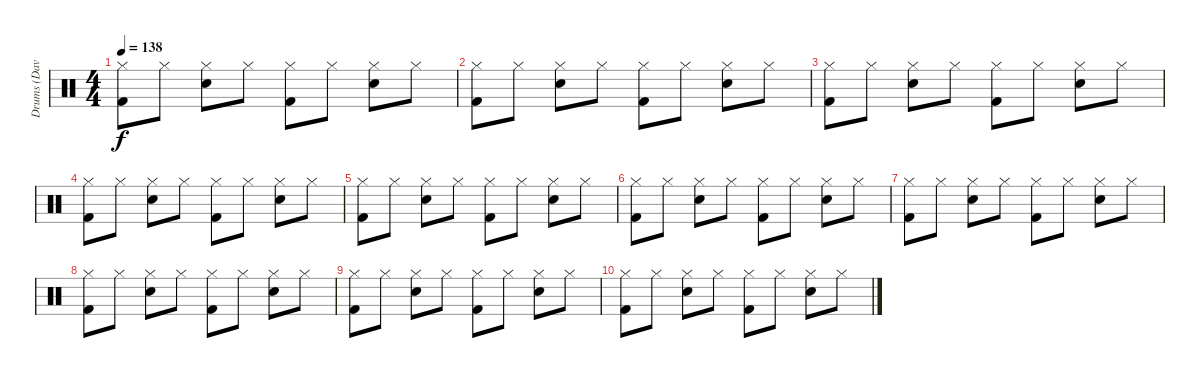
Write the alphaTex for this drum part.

\track ("Drums (Dave Holland)" "Drums (Dav") {instrument percussion}
\staff {score}
\articulation defaults
\ts (4 4)
\tempo 138
\clef neutral
\ks c
("Hi-Hat (closed)" "Kick (hit) 2").8{dy f} "Hi-Hat (closed)".8 ("Hi-Hat (closed)" "Snare (hit) 2").8 "Hi-Hat (closed)".8 ("Hi-Hat (closed)" "Kick (hit) 2").8 "Hi-Hat (closed)".8 ("Hi-Hat (closed)" "Snare (hit) 2").8 "Hi-Hat (closed)".8 |
("Hi-Hat (closed)" "Kick (hit) 2").8 "Hi-Hat (closed)".8 ("Hi-Hat (closed)" "Snare (hit) 2").8 "Hi-Hat (closed)".8 ("Hi-Hat (closed)" "Kick (hit) 2").8 "Hi-Hat (closed)".8 ("Hi-Hat (closed)" "Snare (hit) 2").8 "Hi-Hat (closed)".8 |
("Hi-Hat (closed)" "Kick (hit) 2").8 "Hi-Hat (closed)".8 ("Hi-Hat (closed)" "Snare (hit) 2").8 "Hi-Hat (closed)".8 ("Hi-Hat (closed)" "Kick (hit) 2").8 "Hi-Hat (closed)".8 ("Hi-Hat (closed)" "Snare (hit) 2").8 "Hi-Hat (closed)".8 |
("Hi-Hat (closed)" "Kick (hit) 2").8 "Hi-Hat (closed)".8 ("Hi-Hat (closed)" "Snare (hit) 2").8 "Hi-Hat (closed)".8 ("Hi-Hat (closed)" "Kick (hit) 2").8 "Hi-Hat (closed)".8 ("Hi-Hat (closed)" "Snare (hit) 2").8 "Hi-Hat (closed)".8 |
("Hi-Hat (closed)" "Kick (hit) 2").8 "Hi-Hat (closed)".8 ("Hi-Hat (closed)" "Snare (hit) 2").8 "Hi-Hat (closed)".8 ("Hi-Hat (closed)" "Kick (hit) 2").8 "Hi-Hat (closed)".8 ("Hi-Hat (closed)" "Snare (hit) 2").8 "Hi-Hat (closed)".8 |
("Hi-Hat (closed)" "Kick (hit) 2").8 "Hi-Hat (closed)".8 ("Hi-Hat (closed)" "Snare (hit) 2").8 "Hi-Hat (closed)".8 ("Hi-Hat (closed)" "Kick (hit) 2").8 "Hi-Hat (closed)".8 ("Hi-Hat (closed)" "Snare (hit) 2").8 "Hi-Hat (closed)".8 |
("Hi-Hat (closed)" "Kick (hit) 2").8 "Hi-Hat (closed)".8 ("Hi-Hat (closed)" "Snare (hit) 2").8 "Hi-Hat (closed)".8 ("Hi-Hat (closed)" "Kick (hit) 2").8 "Hi-Hat (closed)".8 ("Hi-Hat (closed)" "Snare (hit) 2").8 "Hi-Hat (closed)".8 |
("Hi-Hat (closed)" "Kick (hit) 2").8 "Hi-Hat (closed)".8 ("Hi-Hat (closed)" "Snare (hit) 2").8 "Hi-Hat (closed)".8 ("Hi-Hat (closed)" "Kick (hit) 2").8 "Hi-Hat (closed)".8 ("Hi-Hat (closed)" "Snare (hit) 2").8 "Hi-Hat (closed)".8 |
("Hi-Hat (closed)" "Kick (hit) 2").8 "Hi-Hat (closed)".8 ("Hi-Hat (closed)" "Snare (hit) 2").8 "Hi-Hat (closed)".8 ("Hi-Hat (closed)" "Kick (hit) 2").8 "Hi-Hat (closed)".8 ("Hi-Hat (closed)" "Snare (hit) 2").8 "Hi-Hat (closed)".8 |
("Hi-Hat (closed)" "Kick (hit) 2").8 "Hi-Hat (closed)".8 ("Hi-Hat (closed)" "Snare (hit) 2").8 "Hi-Hat (closed)".8 ("Hi-Hat (closed)" "Kick (hit) 2").8 "Hi-Hat (closed)".8 ("Hi-Hat (closed)" "Snare (hit) 2").8 "Hi-Hat (closed)".8
